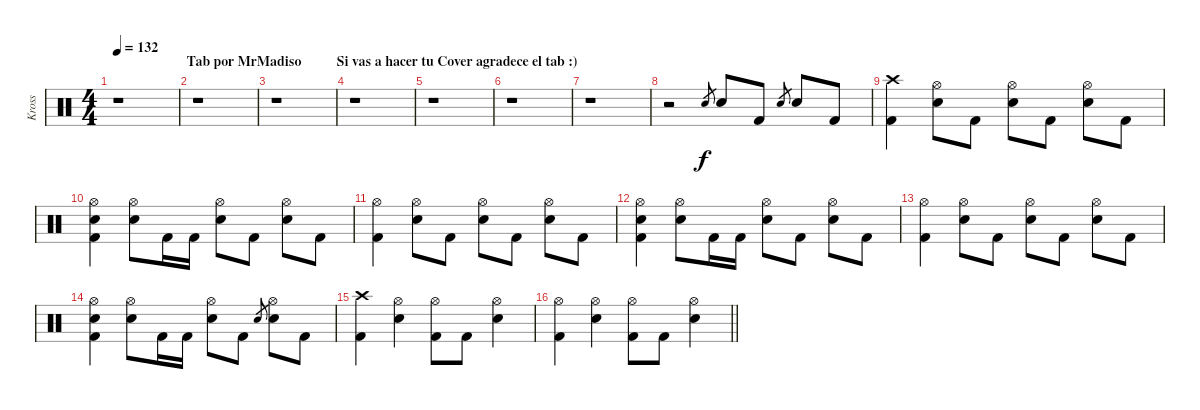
\track ("Kross" "Kross") {instrument percussion}
\staff {score}
\articulation defaults
\ts (4 4)
\section ("" "                     Tab por MrMadiso          Si vas a hacer tu Cover agradece el tab :)")
\tempo 132
\clef neutral
\ks c
r.1{dy f} |
r.1 |
r.1 |
r.1 |
r.1 |
r.1 |
r.1 |
r.2 "Electric Snare (hit)".8{gr} "Electric Snare (hit)".8 "Kick (hit) 2".8 "Electric Snare (hit)".8{gr} "Electric Snare (hit)".8 "Kick (hit) 2".8 |
("Crash high (hit)" "Kick (hit) 2").4 ("Hi-Hat (open)" "Electric Snare (hit)").8 "Kick (hit) 2".8 ("Hi-Hat (open)" "Electric Snare (hit)").8 "Kick (hit) 2".8 ("Hi-Hat (open)" "Electric Snare (hit)").8 "Kick (hit) 2".8 |
("Hi-Hat (open)" "Electric Snare (hit)" "Kick (hit) 2").4 ("Hi-Hat (open)" "Electric Snare (hit)").8 "Kick (hit) 2".16 "Kick (hit) 2".16 ("Hi-Hat (open)" "Electric Snare (hit)").8 "Kick (hit) 2".8 ("Hi-Hat (open)" "Electric Snare (hit)").8 "Kick (hit) 2".8 |
("Hi-Hat (open)" "Kick (hit) 2").4 ("Hi-Hat (open)" "Electric Snare (hit)").8 "Kick (hit) 2".8 ("Hi-Hat (open)" "Electric Snare (hit)").8 "Kick (hit) 2".8 ("Hi-Hat (open)" "Electric Snare (hit)").8 "Kick (hit) 2".8 |
("Hi-Hat (open)" "Electric Snare (hit)" "Kick (hit) 2").4 ("Hi-Hat (open)" "Electric Snare (hit)").8 "Kick (hit) 2".16 "Kick (hit) 2".16 ("Hi-Hat (open)" "Electric Snare (hit)").8 "Kick (hit) 2".8 ("Hi-Hat (open)" "Electric Snare (hit)").8 "Kick (hit) 2".8 |
("Hi-Hat (open)" "Kick (hit) 2").4 ("Hi-Hat (open)" "Electric Snare (hit)").8 "Kick (hit) 2".8 ("Hi-Hat (open)" "Electric Snare (hit)").8 "Kick (hit) 2".8 ("Hi-Hat (open)" "Electric Snare (hit)").8 "Kick (hit) 2".8 |
("Hi-Hat (open)" "Electric Snare (hit)" "Kick (hit) 2").4 ("Hi-Hat (open)" "Electric Snare (hit)").8 "Kick (hit) 2".16 "Kick (hit) 2".16 ("Hi-Hat (open)" "Electric Snare (hit)").8 "Kick (hit) 2".8 "Electric Snare (hit)".8{gr} ("Hi-Hat (open)" "Electric Snare (hit)").8 "Kick (hit) 2".8 |
("Crash high (hit)" "Kick (hit) 2").4 ("Hi-Hat (open)" "Electric Snare (hit)").4 ("Hi-Hat (open)" "Kick (hit) 2").8 "Kick (hit) 2".8 ("Hi-Hat (open)" "Electric Snare (hit)").4 |
\barLineRight lightlight
("Hi-Hat (open)" "Kick (hit) 2").4 ("Hi-Hat (open)" "Electric Snare (hit)").4 ("Hi-Hat (open)" "Kick (hit) 2").8 "Kick (hit) 2".8 ("Hi-Hat (open)" "Electric Snare (hit)").4
